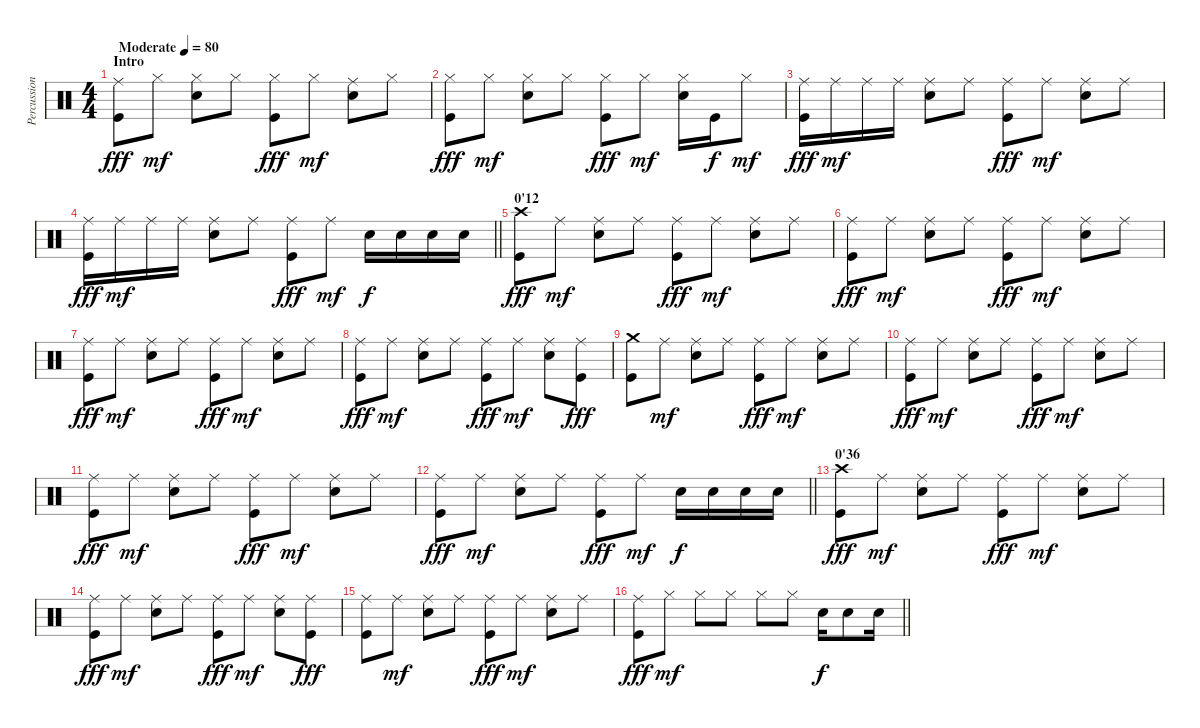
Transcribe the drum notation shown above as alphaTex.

\track ("Percussions" "Percussion") {instrument percussion}
\staff {score}
\articulation defaults
\ts (4 4)
\section ("" "Intro")
\tempo (80 "Moderate")
\clef neutral
\ks c
("Ride (middle)" "Kick (hit)").8{dy fff} "Hi-Hat (closed)".8{dy mf} ("Hi-Hat (closed)" "Snare (hit) 2").8 "Hi-Hat (closed)".8 ("Hi-Hat (closed)" "Kick (hit)").8{dy fff} "Hi-Hat (closed)".8{dy mf} ("Ride (middle)" "Snare (hit) 2").8 "Hi-Hat (closed)".8 |
("Hi-Hat (closed)" "Kick (hit)").8{dy fff} "Hi-Hat (closed)".8{dy mf} ("Hi-Hat (closed)" "Snare (hit) 2").8 "Hi-Hat (closed)".8 ("Hi-Hat (closed)" "Kick (hit)").8{dy fff} "Hi-Hat (closed)".8{dy mf} ("Hi-Hat (closed)" "Snare (hit) 2").16 "Kick (hit)".16{dy f} "Hi-Hat (closed)".8{dy mf} |
("Ride (middle)" "Kick (hit)").16{dy fff} "Ride (middle)".16{dy mf} "Ride (middle)".16 "Ride (middle)".16 ("Ride (middle)" "Snare (hit) 2").8 "Ride (middle)".8 ("Ride (middle)" "Kick (hit)").8{dy fff} "Ride (middle)".8{dy mf} ("Ride (middle)" "Snare (hit) 2").8 "Ride (middle)".8 |
\barLineRight lightlight
("Ride (middle)" "Kick (hit)").16{dy fff} "Ride (middle)".16{dy mf} "Ride (middle)".16 "Ride (middle)".16 ("Ride (middle)" "Snare (hit) 2").8 "Ride (middle)".8 ("Ride (middle)" "Kick (hit)").8{dy fff} "Ride (middle)".8{dy mf} "Snare (hit) 2".16{dy f} "Snare (hit) 2".16 "Snare (hit) 2".16 "Snare (hit) 2".16 |
\section ("" "0'12")
("Crash high (hit)" "Kick (hit)").8{dy fff} "Ride (middle)".8{dy mf} ("Ride (middle)" "Snare (hit) 2").8 "Ride (middle)".8 ("Ride (middle)" "Kick (hit)").8{dy fff} "Ride (middle)".8{dy mf} ("Ride (middle)" "Snare (hit) 2").8 "Ride (middle)".8 |
("Ride (middle)" "Kick (hit)").8{dy fff} "Ride (middle)".8{dy mf} ("Ride (middle)" "Snare (hit) 2").8 "Ride (middle)".8 ("Ride (middle)" "Kick (hit)").8{dy fff} "Ride (middle)".8{dy mf} ("Ride (middle)" "Snare (hit) 2").8 "Ride (middle)".8 |
("Ride (middle)" "Kick (hit)").8{dy fff} "Ride (middle)".8{dy mf} ("Ride (middle)" "Snare (hit) 2").8 "Ride (middle)".8 ("Ride (middle)" "Kick (hit)").8{dy fff} "Ride (middle)".8{dy mf} ("Ride (middle)" "Snare (hit) 2").8 "Ride (middle)".8 |
("Ride (middle)" "Kick (hit)").8{dy fff} "Ride (middle)".8{dy mf} ("Ride (middle)" "Snare (hit) 2").8 "Ride (middle)".8 ("Ride (middle)" "Kick (hit)").8{dy fff} "Ride (middle)".8{dy mf} ("Ride (middle)" "Snare (hit) 2").8 ("Ride (middle)" "Kick (hit)").8{dy fff} |
("Crash medium (hit)" "Kick (hit)").8 "Ride (middle)".8{dy mf} ("Ride (middle)" "Snare (hit) 2").8 "Ride (middle)".8 ("Ride (middle)" "Kick (hit)").8{dy fff} "Ride (middle)".8{dy mf} ("Ride (middle)" "Snare (hit) 2").8 "Ride (middle)".8 |
("Ride (middle)" "Kick (hit)").8{dy fff} "Ride (middle)".8{dy mf} ("Ride (middle)" "Snare (hit) 2").8 "Ride (middle)".8 ("Ride (middle)" "Kick (hit)").8{dy fff} "Ride (middle)".8{dy mf} ("Ride (middle)" "Snare (hit) 2").8 "Ride (middle)".8 |
("Ride (middle)" "Kick (hit)").8{dy fff} "Ride (middle)".8{dy mf} ("Ride (middle)" "Snare (hit) 2").8 "Ride (middle)".8 ("Ride (middle)" "Kick (hit)").8{dy fff} "Ride (middle)".8{dy mf} ("Ride (middle)" "Snare (hit) 2").8 "Ride (middle)".8 |
\barLineRight lightlight
("Ride (middle)" "Kick (hit)").8{dy fff} "Ride (middle)".8{dy mf} ("Ride (middle)" "Snare (hit) 2").8 "Ride (middle)".8 ("Ride (middle)" "Kick (hit)").8{dy fff} "Ride (middle)".8{dy mf} "Snare (hit) 2".16{dy f} "Snare (hit) 2".16 "Snare (hit) 2".16 "Snare (hit) 2".16 |
\section ("" "0'36")
("Crash high (hit)" "Kick (hit)").8{dy fff} "Ride (middle)".8{dy mf} ("Ride (middle)" "Snare (hit) 2").8 "Ride (middle)".8 ("Ride (middle)" "Kick (hit)").8{dy fff} "Ride (middle)".8{dy mf} ("Ride (middle)" "Snare (hit) 2").8 "Ride (middle)".8 |
("Ride (middle)" "Kick (hit)").8{dy fff} "Ride (middle)".8{dy mf} ("Ride (middle)" "Snare (hit) 2").8 "Ride (middle)".8 ("Ride (middle)" "Kick (hit)").8{dy fff} "Ride (middle)".8{dy mf} ("Ride (middle)" "Snare (hit) 2").8 ("Ride (middle)" "Kick (hit)").8{dy fff} |
("Ride (middle)" "Kick (hit)").8 "Ride (middle)".8{dy mf} ("Ride (middle)" "Snare (hit) 2").8 "Ride (middle)".8 ("Ride (middle)" "Kick (hit)").8{dy fff} "Ride (middle)".8{dy mf} ("Ride (middle)" "Snare (hit) 2").8 "Ride (middle)".8 |
\barLineRight lightlight
("Ride (middle)" "Kick (hit)").8{dy fff} "Hi-Hat (closed)".8{dy mf} "Hi-Hat (closed)".8 "Hi-Hat (closed)".8 "Hi-Hat (closed)".8 "Hi-Hat (closed)".8 "Snare (hit) 2".16{dy f} "Snare (hit) 2".8 "Snare (hit) 2".16
